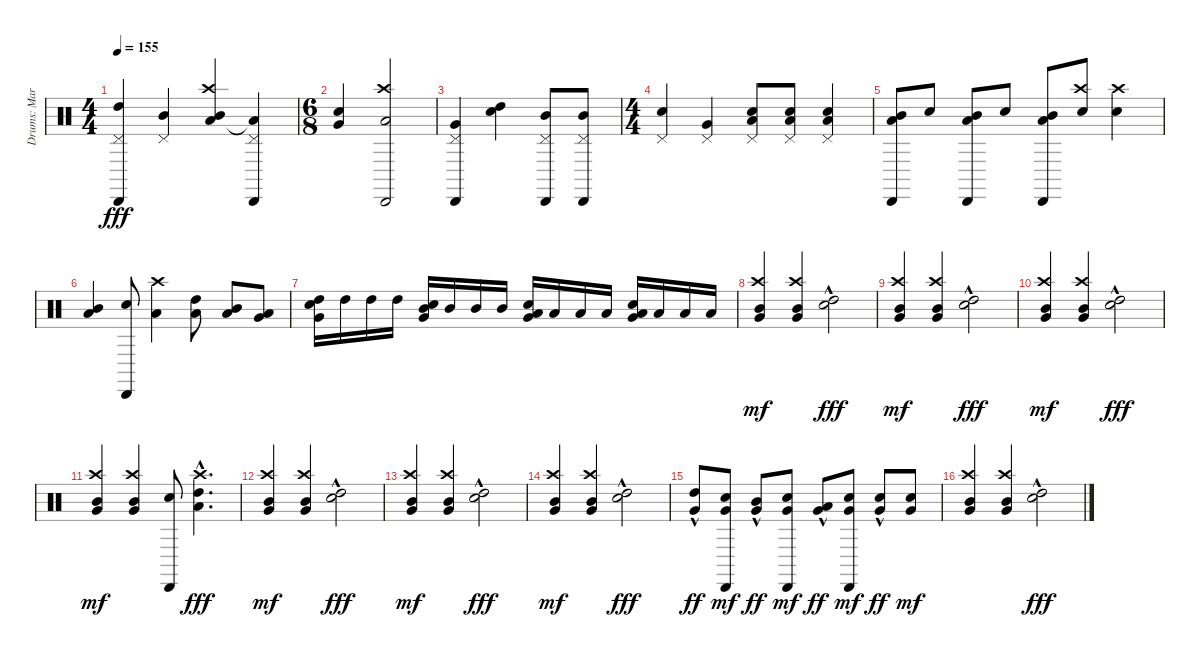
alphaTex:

\track ("Drums: Mark Cross" "Drums: Mar") {instrument percussion}
\staff {score}
\articulation defaults
\ts (4 4)
\tempo 155
\clef neutral
\ks c
("Cabasa (hit)" "Pedal Hi-Hat (hit)" "High Tom (hit)").4{dy fff} ("Pedal Hi-Hat (hit)" "Mid Tom (hit)").4 ("Mid Tom (hit)" "Crash high (hit)" "Low Tom (hit)").4 ("Cabasa (hit)" "Pedal Hi-Hat (hit)" "Low Tom (hit)"{t}).4 |
\ts (6 8)
("Snare (hit) 2" "Very Low Tom (hit)").4 ("Crash high (hit)" "Cabasa (hit)" "Low Tom (hit)").2 |
("Cabasa (hit)" "Pedal Hi-Hat (hit)" "Very Low Tom (hit)").4 ("Snare (hit) 2" "High Tom (hit)").4 ("Pedal Hi-Hat (hit)" "Cabasa (hit)" "Mid Tom (hit)").8 ("Pedal Hi-Hat (hit)" "Cabasa (hit)" "Mid Tom (hit)").8 |
\ts (4 4)
("Pedal Hi-Hat (hit)" "Snare (hit) 2").4 ("Pedal Hi-Hat (hit)" "Very Low Tom (hit)").4 ("Pedal Hi-Hat (hit)" "Snare (hit) 2" "Low Tom (hit)").8 ("Pedal Hi-Hat (hit)" "Snare (hit) 2" "Low Tom (hit)").8 ("Pedal Hi-Hat (hit)" "Snare (hit) 2" "Low Tom (hit)").4 |
("Cabasa (hit)" "Mid Tom (hit)" "Low Tom (hit)").8 "Snare (hit) 2".8 ("Cabasa (hit)" "Mid Tom (hit)" "Low Tom (hit)").8 "Snare (hit) 2".8 ("Cabasa (hit)" "Mid Tom (hit)" "Low Tom (hit)").8 ("Crash high (hit)" "Snare (hit) 2").8 ("Crash high (hit)" "Snare (hit) 2").4 |
("Mid Tom (hit)" "Low Tom (hit)").4 ("Cabasa (hit)" "Snare (hit) 2").8 ("Crash high (hit)" "Low Tom (hit)").4 ("High Tom (hit)" "Low Tom (hit)").8 ("Mid Tom (hit)" "Low Tom (hit)").8 ("Low Tom (hit)" "Very Low Tom (hit)").8 |
("High Tom (hit)" "Snare (hit) 2" "Very Low Tom (hit)").16 "High Tom (hit)".16 "High Tom (hit)".16 "High Tom (hit)".16 ("Mid Tom (hit)" "Snare (hit) 2" "Very Low Tom (hit)").16 "Mid Tom (hit)".16 "Mid Tom (hit)".16 "Mid Tom (hit)".16 ("Low Tom (hit)" "Snare (hit) 2" "Very Low Tom (hit)").16 "Low Tom (hit)".16 "Low Tom (hit)".16 "Low Tom (hit)".16 ("Low Tom (hit)" "Snare (hit) 2" "Very Low Tom (hit)").16 "Low Tom (hit)".16 "Low Tom (hit)".16 "Low Tom (hit)".16 |
("Crash high (hit)" "Mid Tom (hit)" "Very Low Tom (hit)").4{dy mf} ("Crash high (hit)" "Mid Tom (hit)" "Very Low Tom (hit)").4 ("High Tom (hit)" "Snare (hit) 2"{hac}).2{dy fff} |
("Crash high (hit)" "Mid Tom (hit)" "Very Low Tom (hit)").4{dy mf} ("Crash high (hit)" "Mid Tom (hit)" "Very Low Tom (hit)").4 ("High Tom (hit)" "Snare (hit) 2"{hac}).2{dy fff} |
("Crash high (hit)" "Mid Tom (hit)" "Very Low Tom (hit)").4{dy mf} ("Crash high (hit)" "Mid Tom (hit)" "Very Low Tom (hit)").4 ("High Tom (hit)" "Snare (hit) 2"{hac}).2{dy fff} |
("Crash high (hit)" "Mid Tom (hit)" "Very Low Tom (hit)").4{dy mf} ("Crash high (hit)" "Mid Tom (hit)" "Very Low Tom (hit)").4 ("Cabasa (hit)" "Snare (hit) 2").8 ("High Tom (hit)" "Crash high (hit)"{hac} "Low Tom (hit)").4{d dy fff} |
("Crash high (hit)" "Mid Tom (hit)" "Very Low Tom (hit)").4{dy mf} ("Crash high (hit)" "Mid Tom (hit)" "Very Low Tom (hit)").4 ("High Tom (hit)" "Snare (hit) 2"{hac}).2{dy fff} |
("Crash high (hit)" "Mid Tom (hit)" "Very Low Tom (hit)").4{dy mf} ("Crash high (hit)" "Mid Tom (hit)" "Very Low Tom (hit)").4 ("High Tom (hit)" "Snare (hit) 2"{hac}).2{dy fff} |
("Crash high (hit)" "Mid Tom (hit)" "Very Low Tom (hit)").4{dy mf} ("Crash high (hit)" "Mid Tom (hit)" "Very Low Tom (hit)").4 ("High Tom (hit)" "Snare (hit) 2"{hac}).2{dy fff} |
("High Tom (hit)" "Very Low Tom (hit)"{hac}).8{dy ff} ("Snare (hit) 2" "Cabasa (hit)" "Very Low Tom (hit)").8{dy mf} ("Mid Tom (hit)" "Very Low Tom (hit)"{hac}).8{dy ff} ("Snare (hit) 2" "Cabasa (hit)" "Very Low Tom (hit)").8{dy mf} ("Low Tom (hit)" "Very Low Tom (hit)"{hac}).8{dy ff} ("Snare (hit) 2" "Cabasa (hit)" "Very Low Tom (hit)").8{dy mf} ("Snare (hit) 2" "Very Low Tom (hit)"{hac}).8{dy ff} ("Snare (hit) 2" "Very Low Tom (hit)").8{dy mf} |
("Crash high (hit)" "Mid Tom (hit)" "Very Low Tom (hit)").4 ("Crash high (hit)" "Mid Tom (hit)" "Very Low Tom (hit)").4 ("High Tom (hit)" "Snare (hit) 2"{hac}).2{dy fff}
